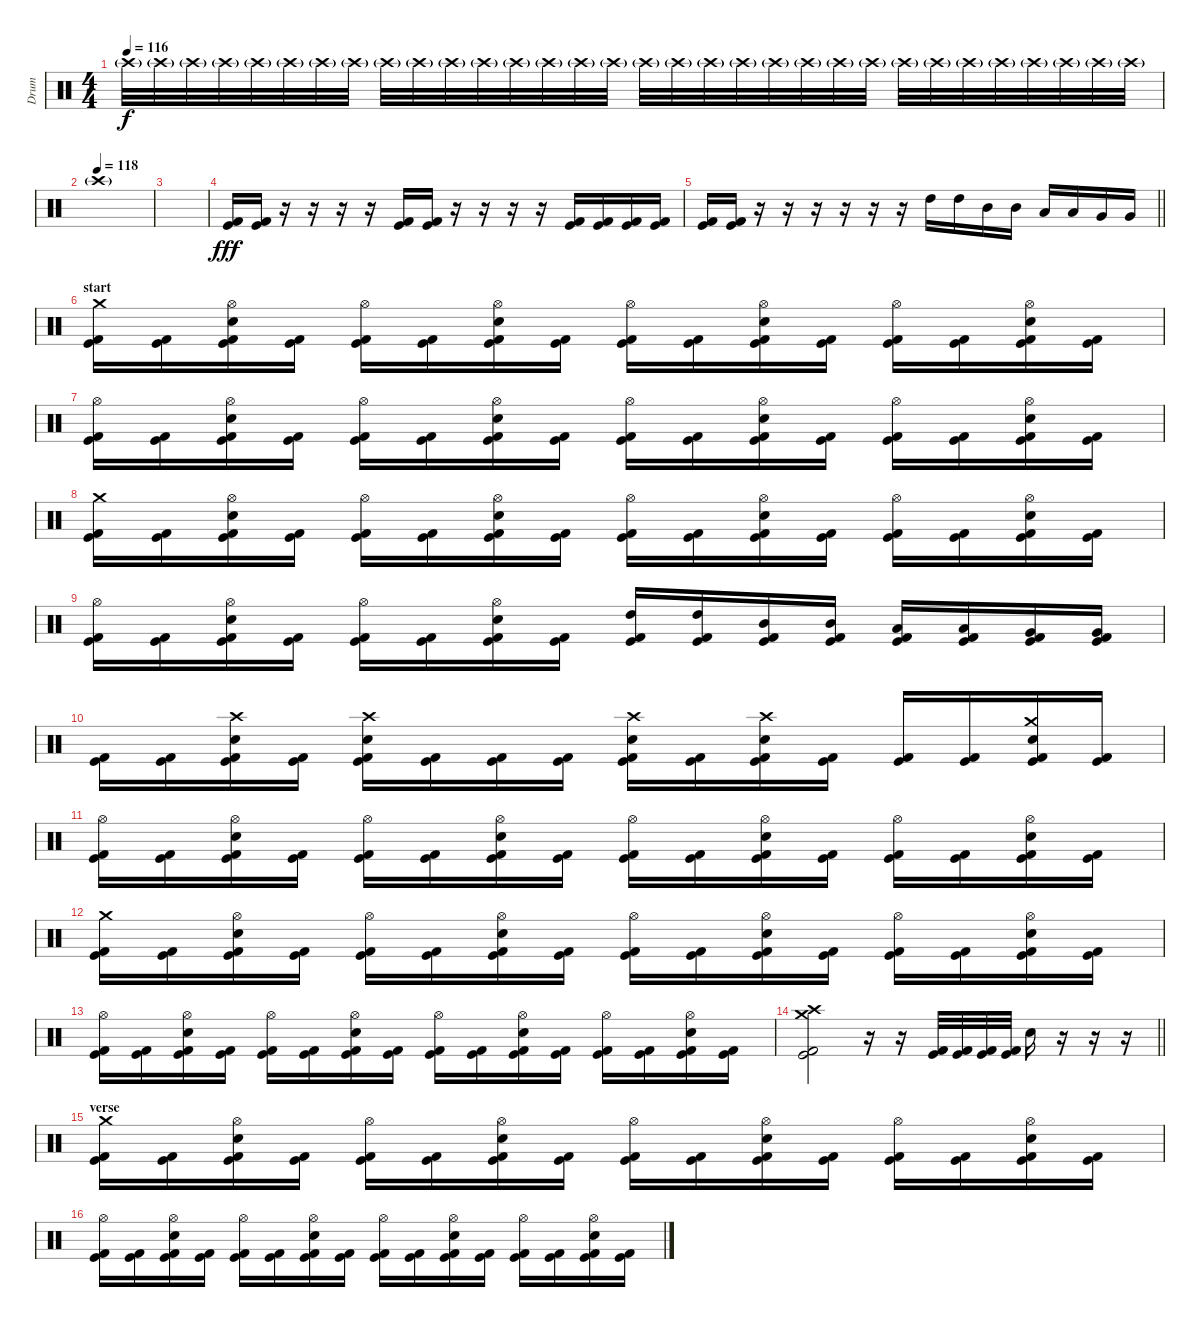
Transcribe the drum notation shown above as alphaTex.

\track ("Drum" "Drum") {instrument percussion}
\staff {score}
\articulation defaults
\ts (4 4)
\tempo 116
\clef neutral
\ks c "Crash high (hit)"{g}.32{dy f} "Crash high (hit)"{g}.32 "Crash high (hit)"{g}.32 "Crash high (hit)"{g}.32 "Crash high (hit)"{g}.32 "Crash high (hit)"{g}.32 "Crash high (hit)"{g}.32 "Crash high (hit)"{g}.32 "Crash high (hit)"{g}.32 "Crash high (hit)"{g}.32 "Crash high (hit)"{g}.32 "Crash high (hit)"{g}.32 "Crash high (hit)"{g}.32 "Crash high (hit)"{g}.32 "Crash high (hit)"{g}.32 "Crash high (hit)"{g}.32 "Crash high (hit)"{g}.32 "Crash high (hit)"{g}.32 "Crash high (hit)"{g}.32 "Crash high (hit)"{g}.32 "Crash high (hit)"{g}.32 "Crash high (hit)"{g}.32 "Crash high (hit)"{g}.32 "Crash high (hit)"{g}.32 "Crash high (hit)"{g}.32 "Crash high (hit)"{g}.32 "Crash high (hit)"{g}.32 "Crash high (hit)"{g}.32 "Crash high (hit)"{g}.32 "Crash high (hit)"{g}.32 "Crash high (hit)"{g}.32 "Crash high (hit)"{g}.32
|
\tempo (118)
"Crash high (hit)"{g}.1 |
|
("Kick (hit)" "Kick (hit) 2").16{dy fff} ("Kick (hit)" "Kick (hit) 2").16 r.16 r.16 r.16 r.16 ("Kick (hit)" "Kick (hit) 2").16 ("Kick (hit)" "Kick (hit) 2").16 r.16 r.16 r.16 r.16 ("Kick (hit)" "Kick (hit) 2").16 ("Kick (hit)" "Kick (hit) 2").16 ("Kick (hit)" "Kick (hit) 2").16 ("Kick (hit)" "Kick (hit) 2").16 |
\barLineRight lightlight
("Kick (hit)" "Kick (hit) 2").16 ("Kick (hit)" "Kick (hit) 2").16 r.16 r.16 r.16 r.16 r.16 r.16 "High Tom (hit)".16 "High Tom (hit)".16 "Mid Tom (hit)".16 "Mid Tom (hit)".16 "Low Tom (hit)".16 "Low Tom (hit)".16 "Very Low Tom (hit)".16 "Very Low Tom (hit)".16 |
\section ("" "start")
("Crash medium (hit)" "Kick (hit)" "Kick (hit) 2").16 ("Kick (hit)" "Kick (hit) 2").16 ("Hi-Hat (open)" "Electric Snare (hit)" "Kick (hit)" "Kick (hit) 2").16 ("Kick (hit)" "Kick (hit) 2").16 ("Hi-Hat (open)" "Kick (hit)" "Kick (hit) 2").16 ("Kick (hit)" "Kick (hit) 2").16 ("Hi-Hat (open)" "Electric Snare (hit)" "Kick (hit)" "Kick (hit) 2").16 ("Kick (hit)" "Kick (hit) 2").16 ("Hi-Hat (open)" "Kick (hit)" "Kick (hit) 2").16 ("Kick (hit)" "Kick (hit) 2").16 ("Hi-Hat (open)" "Electric Snare (hit)" "Kick (hit)" "Kick (hit) 2").16 ("Kick (hit)" "Kick (hit) 2").16 ("Hi-Hat (open)" "Kick (hit)" "Kick (hit) 2").16 ("Kick (hit)" "Kick (hit) 2").16 ("Hi-Hat (open)" "Electric Snare (hit)" "Kick (hit)" "Kick (hit) 2").16 ("Kick (hit)" "Kick (hit) 2").16 |
("Hi-Hat (open)" "Kick (hit)" "Kick (hit) 2").16 ("Kick (hit)" "Kick (hit) 2").16 ("Hi-Hat (open)" "Electric Snare (hit)" "Kick (hit)" "Kick (hit) 2").16 ("Kick (hit)" "Kick (hit) 2").16 ("Hi-Hat (open)" "Kick (hit)" "Kick (hit) 2").16 ("Kick (hit)" "Kick (hit) 2").16 ("Hi-Hat (open)" "Electric Snare (hit)" "Kick (hit)" "Kick (hit) 2").16 ("Kick (hit)" "Kick (hit) 2").16 ("Hi-Hat (open)" "Kick (hit)" "Kick (hit) 2").16 ("Kick (hit)" "Kick (hit) 2").16 ("Hi-Hat (open)" "Electric Snare (hit)" "Kick (hit)" "Kick (hit) 2").16 ("Kick (hit)" "Kick (hit) 2").16 ("Hi-Hat (open)" "Kick (hit)" "Kick (hit) 2").16 ("Kick (hit)" "Kick (hit) 2").16 ("Hi-Hat (open)" "Electric Snare (hit)" "Kick (hit)" "Kick (hit) 2").16 ("Kick (hit)" "Kick (hit) 2").16 |
("Crash medium (hit)" "Kick (hit)" "Kick (hit) 2").16 ("Kick (hit)" "Kick (hit) 2").16 ("Hi-Hat (open)" "Electric Snare (hit)" "Kick (hit)" "Kick (hit) 2").16 ("Kick (hit)" "Kick (hit) 2").16 ("Hi-Hat (open)" "Kick (hit)" "Kick (hit) 2").16 ("Kick (hit)" "Kick (hit) 2").16 ("Hi-Hat (open)" "Electric Snare (hit)" "Kick (hit)" "Kick (hit) 2").16 ("Kick (hit)" "Kick (hit) 2").16 ("Hi-Hat (open)" "Kick (hit)" "Kick (hit) 2").16 ("Kick (hit)" "Kick (hit) 2").16 ("Hi-Hat (open)" "Electric Snare (hit)" "Kick (hit)" "Kick (hit) 2").16 ("Kick (hit)" "Kick (hit) 2").16 ("Hi-Hat (open)" "Kick (hit)" "Kick (hit) 2").16 ("Kick (hit)" "Kick (hit) 2").16 ("Hi-Hat (open)" "Electric Snare (hit)" "Kick (hit)" "Kick (hit) 2").16 ("Kick (hit)" "Kick (hit) 2").16 |
("Hi-Hat (open)" "Kick (hit)" "Kick (hit) 2").16 ("Kick (hit)" "Kick (hit) 2").16 ("Hi-Hat (open)" "Electric Snare (hit)" "Kick (hit)" "Kick (hit) 2").16 ("Kick (hit)" "Kick (hit) 2").16 ("Hi-Hat (open)" "Kick (hit)" "Kick (hit) 2").16 ("Kick (hit)" "Kick (hit) 2").16 ("Hi-Hat (open)" "Electric Snare (hit)" "Kick (hit)" "Kick (hit) 2").16 ("Kick (hit)" "Kick (hit) 2").16 ("High Tom (hit)" "Kick (hit)" "Kick (hit) 2").16 ("High Tom (hit)" "Kick (hit)" "Kick (hit) 2").16 ("Mid Tom (hit)" "Kick (hit)" "Kick (hit) 2").16 ("Mid Tom (hit)" "Kick (hit)" "Kick (hit) 2").16 ("Low Tom (hit)" "Kick (hit)" "Kick (hit) 2").16 ("Low Tom (hit)" "Kick (hit)" "Kick (hit) 2").16 ("Very Low Tom (hit)" "Kick (hit)" "Kick (hit) 2").16 ("Very Low Tom (hit)" "Kick (hit)" "Kick (hit) 2").16 |
("Kick (hit)" "Kick (hit) 2").16 ("Kick (hit)" "Kick (hit) 2").16 ("Crash high (hit)" "Electric Snare (hit)" "Kick (hit)" "Kick (hit) 2").16 ("Kick (hit)" "Kick (hit) 2").16 ("Crash high (hit)" "Electric Snare (hit)" "Kick (hit)" "Kick (hit) 2").16 ("Kick (hit)" "Kick (hit) 2").16 ("Kick (hit)" "Kick (hit) 2").16 ("Kick (hit)" "Kick (hit) 2").16 ("Crash high (hit)" "Electric Snare (hit)" "Kick (hit)" "Kick (hit) 2").16 ("Kick (hit)" "Kick (hit) 2").16 ("Crash high (hit)" "Electric Snare (hit)" "Kick (hit)" "Kick (hit) 2").16 ("Kick (hit)" "Kick (hit) 2").16 ("Kick (hit)" "Kick (hit) 2").16 ("Kick (hit)" "Kick (hit) 2").16 ("Crash medium (hit)" "Electric Snare (hit)" "Kick (hit)" "Kick (hit) 2").16 ("Kick (hit)" "Kick (hit) 2").16 |
("Hi-Hat (open)" "Kick (hit)" "Kick (hit) 2").16 ("Kick (hit)" "Kick (hit) 2").16 ("Hi-Hat (open)" "Electric Snare (hit)" "Kick (hit)" "Kick (hit) 2").16 ("Kick (hit)" "Kick (hit) 2").16 ("Hi-Hat (open)" "Kick (hit)" "Kick (hit) 2").16 ("Kick (hit)" "Kick (hit) 2").16 ("Hi-Hat (open)" "Electric Snare (hit)" "Kick (hit)" "Kick (hit) 2").16 ("Kick (hit)" "Kick (hit) 2").16 ("Hi-Hat (open)" "Kick (hit)" "Kick (hit) 2").16 ("Kick (hit)" "Kick (hit) 2").16 ("Hi-Hat (open)" "Electric Snare (hit)" "Kick (hit)" "Kick (hit) 2").16 ("Kick (hit)" "Kick (hit) 2").16 ("Hi-Hat (open)" "Kick (hit)" "Kick (hit) 2").16 ("Kick (hit)" "Kick (hit) 2").16 ("Hi-Hat (open)" "Electric Snare (hit)" "Kick (hit)" "Kick (hit) 2").16 ("Kick (hit)" "Kick (hit) 2").16 |
("Crash medium (hit)" "Kick (hit)" "Kick (hit) 2").16 ("Kick (hit)" "Kick (hit) 2").16 ("Hi-Hat (open)" "Electric Snare (hit)" "Kick (hit)" "Kick (hit) 2").16 ("Kick (hit)" "Kick (hit) 2").16 ("Hi-Hat (open)" "Kick (hit)" "Kick (hit) 2").16 ("Kick (hit)" "Kick (hit) 2").16 ("Hi-Hat (open)" "Electric Snare (hit)" "Kick (hit)" "Kick (hit) 2").16 ("Kick (hit)" "Kick (hit) 2").16 ("Hi-Hat (open)" "Kick (hit)" "Kick (hit) 2").16 ("Kick (hit)" "Kick (hit) 2").16 ("Hi-Hat (open)" "Electric Snare (hit)" "Kick (hit)" "Kick (hit) 2").16 ("Kick (hit)" "Kick (hit) 2").16 ("Hi-Hat (open)" "Kick (hit)" "Kick (hit) 2").16 ("Kick (hit)" "Kick (hit) 2").16 ("Hi-Hat (open)" "Electric Snare (hit)" "Kick (hit)" "Kick (hit) 2").16 ("Kick (hit)" "Kick (hit) 2").16 |
("Hi-Hat (open)" "Kick (hit)" "Kick (hit) 2").16 ("Kick (hit)" "Kick (hit) 2").16 ("Hi-Hat (open)" "Electric Snare (hit)" "Kick (hit)" "Kick (hit) 2").16 ("Kick (hit)" "Kick (hit) 2").16 ("Hi-Hat (open)" "Kick (hit)" "Kick (hit) 2").16 ("Kick (hit)" "Kick (hit) 2").16 ("Hi-Hat (open)" "Electric Snare (hit)" "Kick (hit)" "Kick (hit) 2").16 ("Kick (hit)" "Kick (hit) 2").16 ("Hi-Hat (open)" "Kick (hit)" "Kick (hit) 2").16 ("Kick (hit)" "Kick (hit) 2").16 ("Hi-Hat (open)" "Electric Snare (hit)" "Kick (hit)" "Kick (hit) 2").16 ("Kick (hit)" "Kick (hit) 2").16 ("Hi-Hat (open)" "Kick (hit)" "Kick (hit) 2").16 ("Kick (hit)" "Kick (hit) 2").16 ("Hi-Hat (open)" "Electric Snare (hit)" "Kick (hit)" "Kick (hit) 2").16 ("Kick (hit)" "Kick (hit) 2").16 |
\barLineRight lightlight
("Crash medium (hit)" "Crash high (hit)" "Kick (hit)" "Kick (hit) 2").2 r.16 r.16 ("Kick (hit)" "Kick (hit) 2").32 ("Kick (hit)" "Kick (hit) 2").32 ("Kick (hit)" "Kick (hit) 2").32 ("Kick (hit)" "Kick (hit) 2").32 "Electric Snare (hit)".16 r.16 r.16 r.16 |
\section ("" "verse")
("Crash medium (hit)" "Kick (hit)" "Kick (hit) 2").16 ("Kick (hit)" "Kick (hit) 2").16 ("Hi-Hat (open)" "Electric Snare (hit)" "Kick (hit)" "Kick (hit) 2").16 ("Kick (hit)" "Kick (hit) 2").16 ("Hi-Hat (open)" "Kick (hit)" "Kick (hit) 2").16 ("Kick (hit)" "Kick (hit) 2").16 ("Hi-Hat (open)" "Electric Snare (hit)" "Kick (hit)" "Kick (hit) 2").16 ("Kick (hit)" "Kick (hit) 2").16 ("Hi-Hat (open)" "Kick (hit)" "Kick (hit) 2").16 ("Kick (hit)" "Kick (hit) 2").16 ("Hi-Hat (open)" "Electric Snare (hit)" "Kick (hit)" "Kick (hit) 2").16 ("Kick (hit)" "Kick (hit) 2").16 ("Hi-Hat (open)" "Kick (hit)" "Kick (hit) 2").16 ("Kick (hit)" "Kick (hit) 2").16 ("Hi-Hat (open)" "Electric Snare (hit)" "Kick (hit)" "Kick (hit) 2").16 ("Kick (hit)" "Kick (hit) 2").16 |
("Hi-Hat (open)" "Kick (hit)" "Kick (hit) 2").16 ("Kick (hit)" "Kick (hit) 2").16 ("Hi-Hat (open)" "Electric Snare (hit)" "Kick (hit)" "Kick (hit) 2").16 ("Kick (hit)" "Kick (hit) 2").16 ("Hi-Hat (open)" "Kick (hit)" "Kick (hit) 2").16 ("Kick (hit)" "Kick (hit) 2").16 ("Hi-Hat (open)" "Electric Snare (hit)" "Kick (hit)" "Kick (hit) 2").16 ("Kick (hit)" "Kick (hit) 2").16 ("Hi-Hat (open)" "Kick (hit)" "Kick (hit) 2").16 ("Kick (hit)" "Kick (hit) 2").16 ("Hi-Hat (open)" "Electric Snare (hit)" "Kick (hit)" "Kick (hit) 2").16 ("Kick (hit)" "Kick (hit) 2").16 ("Hi-Hat (open)" "Kick (hit)" "Kick (hit) 2").16 ("Kick (hit)" "Kick (hit) 2").16 ("Hi-Hat (open)" "Electric Snare (hit)" "Kick (hit)" "Kick (hit) 2").16 ("Kick (hit)" "Kick (hit) 2").16
